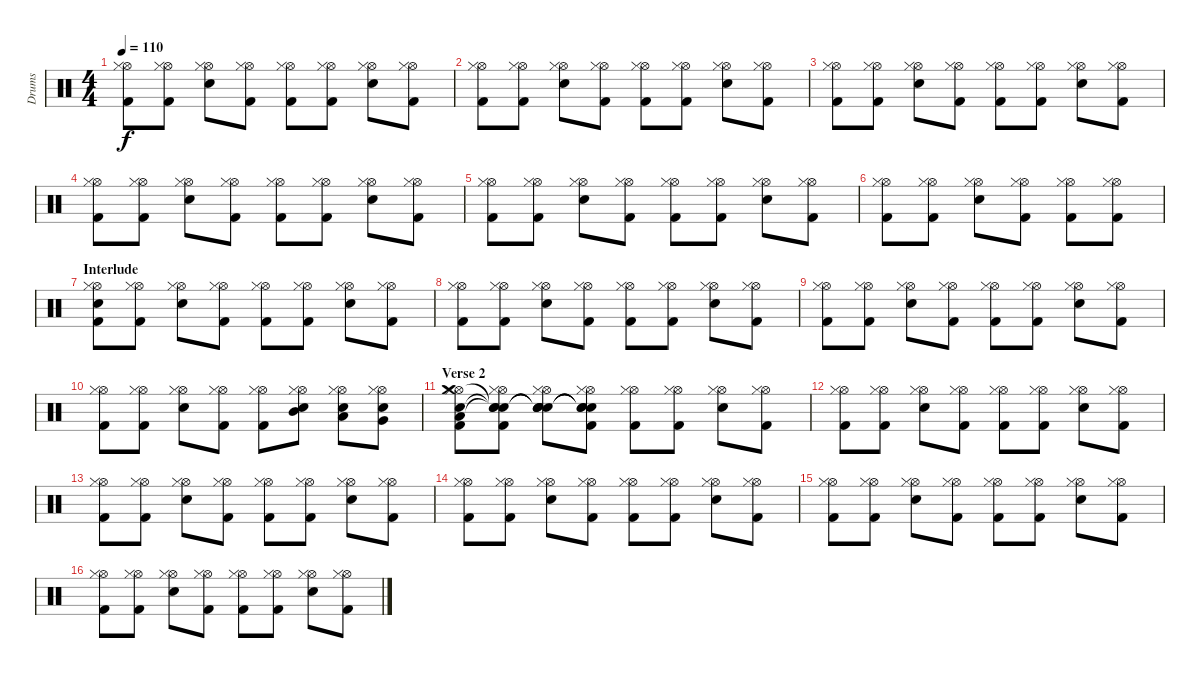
\track ("Drums" "Drums") {instrument percussion}
\staff {score}
\articulation defaults
\ts (4 4)
\tempo 110
\clef neutral
\ks c
("Hi-Hat (open)" "Hi-Hat (closed)" "Kick (hit) 2").8{dy f} ("Hi-Hat (open)" "Hi-Hat (closed)" "Kick (hit) 2").8 ("Hi-Hat (open)" "Hi-Hat (closed)" "Snare (hit) 2").8 ("Hi-Hat (open)" "Hi-Hat (closed)" "Kick (hit) 2").8 ("Hi-Hat (open)" "Hi-Hat (closed)" "Kick (hit) 2").8 ("Hi-Hat (open)" "Hi-Hat (closed)" "Kick (hit) 2").8 ("Hi-Hat (open)" "Hi-Hat (closed)" "Snare (hit) 2").8 ("Hi-Hat (open)" "Hi-Hat (closed)" "Kick (hit) 2").8 |
("Hi-Hat (open)" "Hi-Hat (closed)" "Kick (hit) 2").8 ("Hi-Hat (open)" "Hi-Hat (closed)" "Kick (hit) 2").8 ("Hi-Hat (open)" "Hi-Hat (closed)" "Snare (hit) 2").8 ("Hi-Hat (open)" "Hi-Hat (closed)" "Kick (hit) 2").8 ("Hi-Hat (open)" "Hi-Hat (closed)" "Kick (hit) 2").8 ("Hi-Hat (open)" "Hi-Hat (closed)" "Kick (hit) 2").8 ("Hi-Hat (open)" "Hi-Hat (closed)" "Snare (hit) 2").8 ("Hi-Hat (open)" "Hi-Hat (closed)" "Kick (hit) 2").8 |
("Hi-Hat (open)" "Hi-Hat (closed)" "Kick (hit) 2").8 ("Hi-Hat (open)" "Hi-Hat (closed)" "Kick (hit) 2").8 ("Hi-Hat (open)" "Hi-Hat (closed)" "Snare (hit) 2").8 ("Hi-Hat (open)" "Hi-Hat (closed)" "Kick (hit) 2").8 ("Hi-Hat (open)" "Hi-Hat (closed)" "Kick (hit) 2").8 ("Hi-Hat (open)" "Hi-Hat (closed)" "Kick (hit) 2").8 ("Hi-Hat (open)" "Hi-Hat (closed)" "Snare (hit) 2").8 ("Hi-Hat (open)" "Hi-Hat (closed)" "Kick (hit) 2").8 |
("Hi-Hat (open)" "Hi-Hat (closed)" "Kick (hit) 2").8 ("Hi-Hat (open)" "Hi-Hat (closed)" "Kick (hit) 2").8 ("Hi-Hat (open)" "Hi-Hat (closed)" "Snare (hit) 2").8 ("Hi-Hat (open)" "Hi-Hat (closed)" "Kick (hit) 2").8 ("Hi-Hat (open)" "Hi-Hat (closed)" "Kick (hit) 2").8 ("Hi-Hat (open)" "Hi-Hat (closed)" "Kick (hit) 2").8 ("Hi-Hat (open)" "Hi-Hat (closed)" "Snare (hit) 2").8 ("Hi-Hat (open)" "Hi-Hat (closed)" "Kick (hit) 2").8 |
("Hi-Hat (open)" "Hi-Hat (closed)" "Kick (hit) 2").8 ("Hi-Hat (open)" "Hi-Hat (closed)" "Kick (hit) 2").8 ("Hi-Hat (open)" "Hi-Hat (closed)" "Snare (hit) 2").8 ("Hi-Hat (open)" "Hi-Hat (closed)" "Kick (hit) 2").8 ("Hi-Hat (open)" "Hi-Hat (closed)" "Kick (hit) 2").8 ("Hi-Hat (open)" "Hi-Hat (closed)" "Kick (hit) 2").8 ("Hi-Hat (open)" "Hi-Hat (closed)" "Snare (hit) 2").8 ("Hi-Hat (open)" "Hi-Hat (closed)" "Kick (hit) 2").8 |
("Hi-Hat (open)" "Hi-Hat (closed)" "Kick (hit) 2").8 ("Hi-Hat (open)" "Hi-Hat (closed)" "Kick (hit) 2").8 ("Hi-Hat (open)" "Hi-Hat (closed)" "Snare (hit) 2").8 ("Hi-Hat (open)" "Hi-Hat (closed)" "Kick (hit) 2").8 ("Hi-Hat (open)" "Hi-Hat (closed)" "Kick (hit) 2").8 ("Hi-Hat (open)" "Hi-Hat (closed)" "Kick (hit) 2").8 |
\section ("" "Interlude")
("Hi-Hat (open)" "Hi-Hat (closed)" "Electric Snare (hit)" "Kick (hit) 2").8 ("Hi-Hat (open)" "Hi-Hat (closed)" "Kick (hit) 2").8 ("Hi-Hat (open)" "Hi-Hat (closed)" "Snare (hit) 2").8 ("Hi-Hat (open)" "Hi-Hat (closed)" "Kick (hit) 2").8 ("Hi-Hat (open)" "Hi-Hat (closed)" "Kick (hit) 2").8 ("Hi-Hat (open)" "Hi-Hat (closed)" "Kick (hit) 2").8 ("Hi-Hat (open)" "Hi-Hat (closed)" "Snare (hit) 2").8 ("Hi-Hat (open)" "Hi-Hat (closed)" "Kick (hit) 2").8 |
("Hi-Hat (open)" "Hi-Hat (closed)" "Kick (hit) 2").8 ("Hi-Hat (open)" "Hi-Hat (closed)" "Kick (hit) 2").8 ("Hi-Hat (open)" "Hi-Hat (closed)" "Snare (hit) 2").8 ("Hi-Hat (open)" "Hi-Hat (closed)" "Kick (hit) 2").8 ("Hi-Hat (open)" "Hi-Hat (closed)" "Kick (hit) 2").8 ("Hi-Hat (open)" "Hi-Hat (closed)" "Kick (hit) 2").8 ("Hi-Hat (open)" "Hi-Hat (closed)" "Snare (hit) 2").8 ("Hi-Hat (open)" "Hi-Hat (closed)" "Kick (hit) 2").8 |
("Hi-Hat (open)" "Hi-Hat (closed)" "Kick (hit) 2").8 ("Hi-Hat (open)" "Hi-Hat (closed)" "Kick (hit) 2").8 ("Hi-Hat (open)" "Hi-Hat (closed)" "Snare (hit) 2").8 ("Hi-Hat (open)" "Hi-Hat (closed)" "Kick (hit) 2").8 ("Hi-Hat (open)" "Hi-Hat (closed)" "Kick (hit) 2").8 ("Hi-Hat (open)" "Hi-Hat (closed)" "Kick (hit) 2").8 ("Hi-Hat (open)" "Hi-Hat (closed)" "Snare (hit) 2").8 ("Hi-Hat (open)" "Hi-Hat (closed)" "Kick (hit) 2").8 |
("Hi-Hat (open)" "Hi-Hat (closed)" "Kick (hit) 2").8 ("Hi-Hat (open)" "Hi-Hat (closed)" "Kick (hit) 2").8 ("Hi-Hat (open)" "Hi-Hat (closed)" "Snare (hit) 2").8 ("Hi-Hat (open)" "Hi-Hat (closed)" "Kick (hit) 2").8 ("Hi-Hat (open)" "Hi-Hat (closed)" "Kick (hit) 2").8 ("Hi-Hat (open)" "Hi-Hat (closed)" "Snare (hit) 2" "Mid Tom (hit)").8 ("Hi-Hat (open)" "Hi-Hat (closed)" "Snare (hit) 2" "Low Tom (hit)").8 ("Hi-Hat (open)" "Hi-Hat (closed)" "Snare (hit) 2" "Very Low Tom (hit)").8 |
\section ("" "Verse 2")
("Hi-Hat (open)" "Hi-Hat (closed)" "Electric Snare (hit)" "Kick (hit) 2" "Low Floor Tom (hit)" "Crash medium (hit)").8 ("Hi-Hat (open)" "Hi-Hat (closed)" "Snare (hit)"{t} "Kick (hit) 2" "Snare (hit)"{t} "Snare (hit)"{t}).8 ("Hi-Hat (open)" "Hi-Hat (closed)" "Snare (hit)"{t} "Snare (hit) 2" "Snare (hit)"{t} "Snare (hit)"{t}).8 ("Hi-Hat (open)" "Hi-Hat (closed)" "Snare (hit)"{t} "Kick (hit) 2" "Snare (hit)"{t} "Snare (hit)"{t}).8 ("Hi-Hat (open)" "Hi-Hat (closed)" "Kick (hit) 2").8 ("Hi-Hat (open)" "Hi-Hat (closed)" "Kick (hit) 2").8 ("Hi-Hat (open)" "Hi-Hat (closed)" "Snare (hit) 2").8 ("Hi-Hat (open)" "Hi-Hat (closed)" "Kick (hit) 2").8 |
("Hi-Hat (open)" "Hi-Hat (closed)" "Kick (hit) 2").8 ("Hi-Hat (open)" "Hi-Hat (closed)" "Kick (hit) 2").8 ("Hi-Hat (open)" "Hi-Hat (closed)" "Snare (hit) 2").8 ("Hi-Hat (open)" "Hi-Hat (closed)" "Kick (hit) 2").8 ("Hi-Hat (open)" "Hi-Hat (closed)" "Kick (hit) 2").8 ("Hi-Hat (open)" "Hi-Hat (closed)" "Kick (hit) 2").8 ("Hi-Hat (open)" "Hi-Hat (closed)" "Snare (hit) 2").8 ("Hi-Hat (open)" "Hi-Hat (closed)" "Kick (hit) 2").8 |
("Hi-Hat (open)" "Hi-Hat (closed)" "Kick (hit) 2").8 ("Hi-Hat (open)" "Hi-Hat (closed)" "Kick (hit) 2").8 ("Hi-Hat (open)" "Hi-Hat (closed)" "Snare (hit) 2").8 ("Hi-Hat (open)" "Hi-Hat (closed)" "Kick (hit) 2").8 ("Hi-Hat (open)" "Hi-Hat (closed)" "Kick (hit) 2").8 ("Hi-Hat (open)" "Hi-Hat (closed)" "Kick (hit) 2").8 ("Hi-Hat (open)" "Hi-Hat (closed)" "Snare (hit) 2").8 ("Hi-Hat (open)" "Hi-Hat (closed)" "Kick (hit) 2").8 |
("Hi-Hat (open)" "Hi-Hat (closed)" "Kick (hit) 2").8 ("Hi-Hat (open)" "Hi-Hat (closed)" "Kick (hit) 2").8 ("Hi-Hat (open)" "Hi-Hat (closed)" "Snare (hit) 2").8 ("Hi-Hat (open)" "Hi-Hat (closed)" "Kick (hit) 2").8 ("Hi-Hat (open)" "Hi-Hat (closed)" "Kick (hit) 2").8 ("Hi-Hat (open)" "Hi-Hat (closed)" "Kick (hit) 2").8 ("Hi-Hat (open)" "Hi-Hat (closed)" "Snare (hit) 2").8 ("Hi-Hat (open)" "Hi-Hat (closed)" "Kick (hit) 2").8 |
("Hi-Hat (open)" "Hi-Hat (closed)" "Kick (hit) 2").8 ("Hi-Hat (open)" "Hi-Hat (closed)" "Kick (hit) 2").8 ("Hi-Hat (open)" "Hi-Hat (closed)" "Snare (hit) 2").8 ("Hi-Hat (open)" "Hi-Hat (closed)" "Kick (hit) 2").8 ("Hi-Hat (open)" "Hi-Hat (closed)" "Kick (hit) 2").8 ("Hi-Hat (open)" "Hi-Hat (closed)" "Kick (hit) 2").8 ("Hi-Hat (open)" "Hi-Hat (closed)" "Snare (hit) 2").8 ("Hi-Hat (open)" "Hi-Hat (closed)" "Kick (hit) 2").8 |
("Hi-Hat (open)" "Hi-Hat (closed)" "Kick (hit) 2").8 ("Hi-Hat (open)" "Hi-Hat (closed)" "Kick (hit) 2").8 ("Hi-Hat (open)" "Hi-Hat (closed)" "Snare (hit) 2").8 ("Hi-Hat (open)" "Hi-Hat (closed)" "Kick (hit) 2").8 ("Hi-Hat (open)" "Hi-Hat (closed)" "Kick (hit) 2").8 ("Hi-Hat (open)" "Hi-Hat (closed)" "Kick (hit) 2").8 ("Hi-Hat (open)" "Hi-Hat (closed)" "Snare (hit) 2").8 ("Hi-Hat (open)" "Hi-Hat (closed)" "Kick (hit) 2").8
